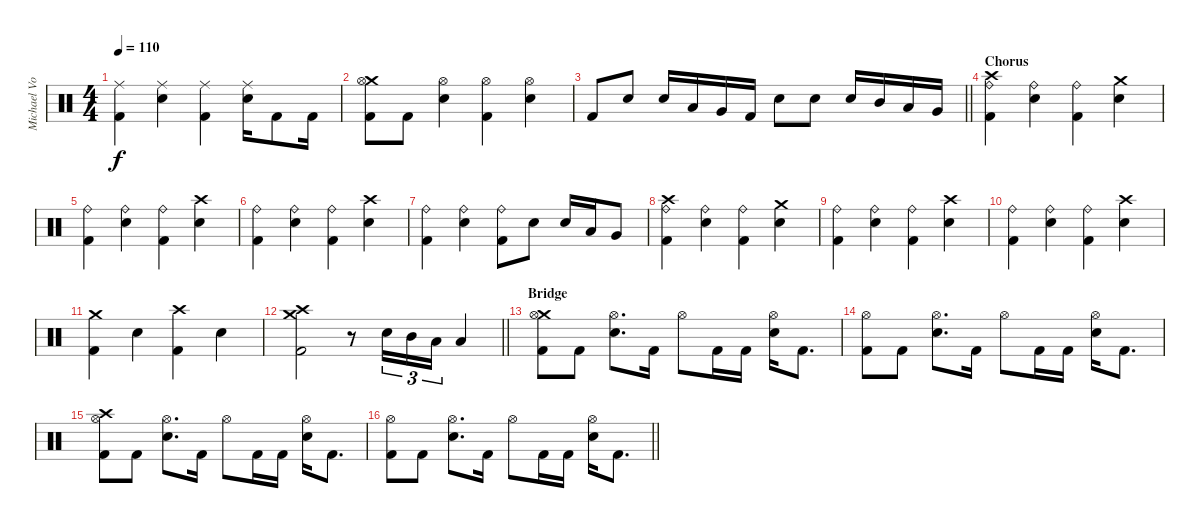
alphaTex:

\track ("Michael Von Knorring" "Michael Vo") {instrument percussion}
\staff {score}
\articulation defaults
\ts (4 4)
\tempo 110
\clef neutral
\ks c
("Ride (middle)" "Kick (hit) 2").4{dy f} ("Ride (middle)" "Snare (hit) 2").4 ("Ride (middle)" "Kick (hit) 2").4 ("Ride (middle)" "Snare (hit) 2").16 "Kick (hit) 2".8 "Kick (hit) 2".16 |
("Crash medium (hit)" "Hi-Hat (open)" "Kick (hit) 2").8 "Kick (hit) 2".8 ("Hi-Hat (open)" "Snare (hit) 2").4 ("Hi-Hat (open)" "Kick (hit) 2").4 ("Hi-Hat (open)" "Snare (hit) 2").4 |
\barLineRight lightlight "Kick (hit) 2".8 "Snare (hit) 2".8 "Snare (hit) 2".16 "Low Tom (hit)".16 "Very Low Tom (hit)".16 "Kick (hit) 2".16 "Snare (hit) 2".8 "Snare (hit) 2".8 "Snare (hit) 2".16 "Mid Tom (hit)".16 "Low Tom (hit)".16 "Very Low Tom (hit)".16
|
\section ("" "Chorus")
("Crash high (hit)" "Ride (bell)" "Kick (hit) 2").4 ("Ride (bell)" "Snare (hit) 2").4 ("Ride (bell)" "Kick (hit) 2").4 ("Crash medium (hit)" "Snare (hit) 2").4 |
("Ride (bell)" "Kick (hit) 2").4 ("Ride (bell)" "Snare (hit) 2").4 ("Ride (bell)" "Kick (hit) 2").4 ("Crash high (hit)" "Snare (hit) 2").4 |
("Ride (bell)" "Kick (hit) 2").4 ("Ride (bell)" "Snare (hit) 2").4 ("Ride (bell)" "Kick (hit) 2").4 ("Crash high (hit)" "Snare (hit) 2").4 |
("Ride (bell)" "Kick (hit) 2").4 ("Ride (bell)" "Snare (hit) 2").4 ("Ride (bell)" "Kick (hit) 2").8 "Snare (hit) 2".8 "Snare (hit) 2".16 "Low Tom (hit)".16 "Very Low Tom (hit)".8 |
("Crash high (hit)" "Ride (bell)" "Kick (hit) 2").4 ("Ride (bell)" "Snare (hit) 2").4 ("Ride (bell)" "Kick (hit) 2").4 ("Crash medium (hit)" "Snare (hit) 2").4 |
("Ride (bell)" "Kick (hit) 2").4 ("Ride (bell)" "Snare (hit) 2").4 ("Ride (bell)" "Kick (hit) 2").4 ("Crash high (hit)" "Snare (hit) 2").4 |
("Ride (bell)" "Kick (hit) 2").4 ("Ride (bell)" "Snare (hit) 2").4 ("Ride (bell)" "Kick (hit) 2").4 ("Crash high (hit)" "Snare (hit) 2").4 |
("Crash medium (hit)" "Kick (hit) 2").4 "Snare (hit) 2".4 ("Crash high (hit)" "Kick (hit) 2").4 "Snare (hit) 2".4 |
\barLineRight lightlight
("Crash high (hit)" "Crash medium (hit)" "Kick (hit) 2").2 r.8 "Snare (hit) 2".16{tu (3 2)} "Mid Tom (hit)".16{tu (3 2)} "Low Tom (hit)".16{tu (3 2)} "Low Floor Tom (hit)".4 |
\section ("" "Bridge")
("Crash medium (hit)" "Hi-Hat (open)" "Kick (hit) 2").8 "Kick (hit) 2".8 ("Hi-Hat (open)" "Snare (hit) 2").8{d} "Kick (hit) 2".16 "Hi-Hat (open)".8 "Kick (hit) 2".16 "Kick (hit) 2".16 ("Hi-Hat (open)" "Snare (hit) 2").16 "Kick (hit) 2".8{d} |
("Hi-Hat (open)" "Kick (hit) 2").8 "Kick (hit) 2".8 ("Hi-Hat (open)" "Snare (hit) 2").8{d} "Kick (hit) 2".16 "Hi-Hat (open)".8 "Kick (hit) 2".16 "Kick (hit) 2".16 ("Hi-Hat (open)" "Snare (hit) 2").16 "Kick (hit) 2".8{d} |
("Crash high (hit)" "Hi-Hat (open)" "Kick (hit) 2").8 "Kick (hit) 2".8 ("Hi-Hat (open)" "Snare (hit) 2").8{d} "Kick (hit) 2".16 "Hi-Hat (open)".8 "Kick (hit) 2".16 "Kick (hit) 2".16 ("Hi-Hat (open)" "Snare (hit) 2").16 "Kick (hit) 2".8{d} |
\barLineRight lightlight
("Hi-Hat (open)" "Kick (hit) 2").8 "Kick (hit) 2".8 ("Hi-Hat (open)" "Snare (hit) 2").8{d} "Kick (hit) 2".16 "Hi-Hat (open)".8 "Kick (hit) 2".16 "Kick (hit) 2".16 ("Hi-Hat (open)" "Snare (hit) 2").16 "Kick (hit) 2".8{d}
